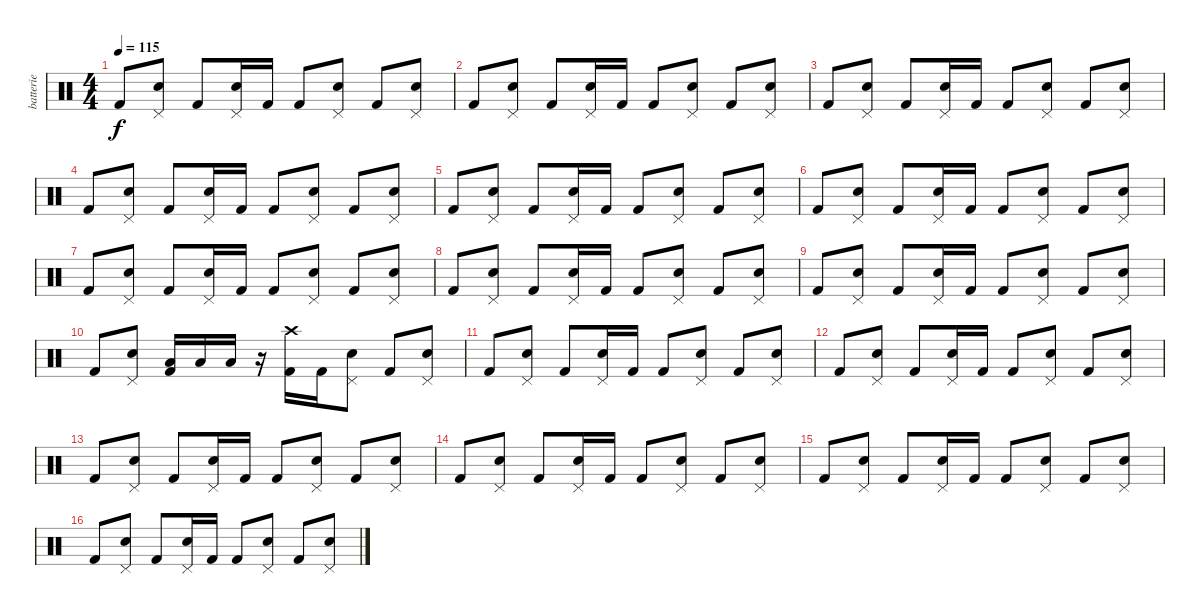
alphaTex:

\track ("batterie" "batterie") {instrument percussion}
\staff {score}
\articulation defaults
\ts (4 4)
\tempo 115
\clef neutral
\ks c "Kick (hit) 2".8{dy f}
("Pedal Hi-Hat (hit)" "Electric Snare (hit)").8 "Kick (hit) 2".8 ("Pedal Hi-Hat (hit)" "Electric Snare (hit)").16 "Kick (hit) 2".16 "Kick (hit) 2".8 ("Pedal Hi-Hat (hit)" "Electric Snare (hit)").8 "Kick (hit) 2".8 ("Pedal Hi-Hat (hit)" "Electric Snare (hit)").8 |
"Kick (hit) 2".8 ("Pedal Hi-Hat (hit)" "Electric Snare (hit)").8 "Kick (hit) 2".8 ("Pedal Hi-Hat (hit)" "Electric Snare (hit)").16 "Kick (hit) 2".16 "Kick (hit) 2".8 ("Pedal Hi-Hat (hit)" "Electric Snare (hit)").8 "Kick (hit) 2".8 ("Pedal Hi-Hat (hit)" "Electric Snare (hit)").8 |
"Kick (hit) 2".8 ("Pedal Hi-Hat (hit)" "Electric Snare (hit)").8 "Kick (hit) 2".8 ("Pedal Hi-Hat (hit)" "Electric Snare (hit)").16 "Kick (hit) 2".16 "Kick (hit) 2".8 ("Pedal Hi-Hat (hit)" "Electric Snare (hit)").8 "Kick (hit) 2".8 ("Pedal Hi-Hat (hit)" "Electric Snare (hit)").8 |
"Kick (hit) 2".8 ("Pedal Hi-Hat (hit)" "Electric Snare (hit)").8 "Kick (hit) 2".8 ("Pedal Hi-Hat (hit)" "Electric Snare (hit)").16 "Kick (hit) 2".16 "Kick (hit) 2".8 ("Pedal Hi-Hat (hit)" "Electric Snare (hit)").8 "Kick (hit) 2".8 ("Pedal Hi-Hat (hit)" "Electric Snare (hit)").8 |
"Kick (hit) 2".8 ("Pedal Hi-Hat (hit)" "Electric Snare (hit)").8 "Kick (hit) 2".8 ("Pedal Hi-Hat (hit)" "Electric Snare (hit)").16 "Kick (hit) 2".16 "Kick (hit) 2".8 ("Pedal Hi-Hat (hit)" "Electric Snare (hit)").8 "Kick (hit) 2".8 ("Pedal Hi-Hat (hit)" "Electric Snare (hit)").8 |
"Kick (hit) 2".8 ("Pedal Hi-Hat (hit)" "Electric Snare (hit)").8 "Kick (hit) 2".8 ("Pedal Hi-Hat (hit)" "Electric Snare (hit)").16 "Kick (hit) 2".16 "Kick (hit) 2".8 ("Pedal Hi-Hat (hit)" "Electric Snare (hit)").8 "Kick (hit) 2".8 ("Pedal Hi-Hat (hit)" "Electric Snare (hit)").8 |
"Kick (hit) 2".8 ("Pedal Hi-Hat (hit)" "Electric Snare (hit)").8 "Kick (hit) 2".8 ("Pedal Hi-Hat (hit)" "Electric Snare (hit)").16 "Kick (hit) 2".16 "Kick (hit) 2".8 ("Pedal Hi-Hat (hit)" "Electric Snare (hit)").8 "Kick (hit) 2".8 ("Pedal Hi-Hat (hit)" "Electric Snare (hit)").8 |
"Kick (hit) 2".8 ("Pedal Hi-Hat (hit)" "Electric Snare (hit)").8 "Kick (hit) 2".8 ("Pedal Hi-Hat (hit)" "Electric Snare (hit)").16 "Kick (hit) 2".16 "Kick (hit) 2".8 ("Pedal Hi-Hat (hit)" "Electric Snare (hit)").8 "Kick (hit) 2".8 ("Pedal Hi-Hat (hit)" "Electric Snare (hit)").8 |
"Kick (hit) 2".8 ("Pedal Hi-Hat (hit)" "Electric Snare (hit)").8 "Kick (hit) 2".8 ("Pedal Hi-Hat (hit)" "Electric Snare (hit)").16 "Kick (hit) 2".16 "Kick (hit) 2".8 ("Pedal Hi-Hat (hit)" "Electric Snare (hit)").8 "Kick (hit) 2".8 ("Pedal Hi-Hat (hit)" "Electric Snare (hit)").8 |
"Kick (hit) 2".8 ("Pedal Hi-Hat (hit)" "Electric Snare (hit)").8 ("Low Tom (hit)" "Kick (hit) 2").16 "Low Tom (hit)".16 "Low Tom (hit)".16 r.16 ("Crash high (hit)" "Kick (hit) 2").16 "Kick (hit) 2".16 ("Pedal Hi-Hat (hit)" "Electric Snare (hit)").8 "Kick (hit) 2".8 ("Pedal Hi-Hat (hit)" "Electric Snare (hit)").8 |
"Kick (hit) 2".8 ("Pedal Hi-Hat (hit)" "Electric Snare (hit)").8 "Kick (hit) 2".8 ("Pedal Hi-Hat (hit)" "Electric Snare (hit)").16 "Kick (hit) 2".16 "Kick (hit) 2".8 ("Pedal Hi-Hat (hit)" "Electric Snare (hit)").8 "Kick (hit) 2".8 ("Pedal Hi-Hat (hit)" "Electric Snare (hit)").8 |
"Kick (hit) 2".8 ("Pedal Hi-Hat (hit)" "Electric Snare (hit)").8 "Kick (hit) 2".8 ("Pedal Hi-Hat (hit)" "Electric Snare (hit)").16 "Kick (hit) 2".16 "Kick (hit) 2".8 ("Pedal Hi-Hat (hit)" "Electric Snare (hit)").8 "Kick (hit) 2".8 ("Pedal Hi-Hat (hit)" "Electric Snare (hit)").8 |
"Kick (hit) 2".8 ("Pedal Hi-Hat (hit)" "Electric Snare (hit)").8 "Kick (hit) 2".8 ("Pedal Hi-Hat (hit)" "Electric Snare (hit)").16 "Kick (hit) 2".16 "Kick (hit) 2".8 ("Pedal Hi-Hat (hit)" "Electric Snare (hit)").8 "Kick (hit) 2".8 ("Pedal Hi-Hat (hit)" "Electric Snare (hit)").8 |
"Kick (hit) 2".8 ("Pedal Hi-Hat (hit)" "Electric Snare (hit)").8 "Kick (hit) 2".8 ("Pedal Hi-Hat (hit)" "Electric Snare (hit)").16 "Kick (hit) 2".16 "Kick (hit) 2".8 ("Pedal Hi-Hat (hit)" "Electric Snare (hit)").8 "Kick (hit) 2".8 ("Pedal Hi-Hat (hit)" "Electric Snare (hit)").8 |
"Kick (hit) 2".8 ("Pedal Hi-Hat (hit)" "Electric Snare (hit)").8 "Kick (hit) 2".8 ("Pedal Hi-Hat (hit)" "Electric Snare (hit)").16 "Kick (hit) 2".16 "Kick (hit) 2".8 ("Pedal Hi-Hat (hit)" "Electric Snare (hit)").8 "Kick (hit) 2".8 ("Pedal Hi-Hat (hit)" "Electric Snare (hit)").8 |
"Kick (hit) 2".8 ("Pedal Hi-Hat (hit)" "Electric Snare (hit)").8 "Kick (hit) 2".8 ("Pedal Hi-Hat (hit)" "Electric Snare (hit)").16 "Kick (hit) 2".16 "Kick (hit) 2".8 ("Pedal Hi-Hat (hit)" "Electric Snare (hit)").8 "Kick (hit) 2".8 ("Pedal Hi-Hat (hit)" "Electric Snare (hit)").8
